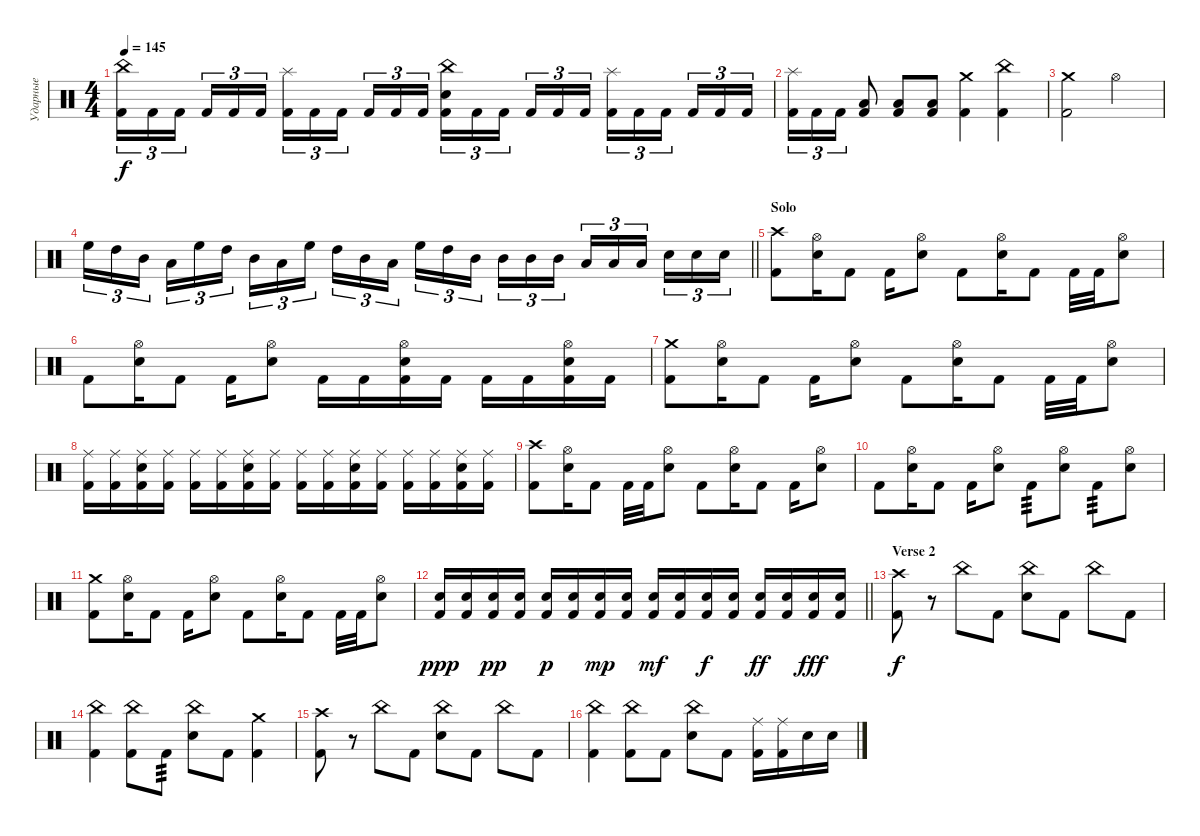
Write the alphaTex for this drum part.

\track ("Ударные" "Ударные") {instrument percussion}
\staff {score}
\articulation defaults
\ts (4 4)
\tempo 145
\clef neutral
\ks c
("China (hit)" "Kick (hit) 2").16{tu (3 2) dy f} "Kick (hit) 2".16{tu (3 2)} "Kick (hit) 2".16{tu (3 2) beam splitsecondary} "Kick (hit) 2".16{tu (3 2)} "Kick (hit) 2".16{tu (3 2)} "Kick (hit) 2".16{tu (3 2)} ("Splash (hit)" "Kick (hit) 2").16{tu (3 2)} "Kick (hit) 2".16{tu (3 2)} "Kick (hit) 2".16{tu (3 2) beam splitsecondary} "Kick (hit) 2".16{tu (3 2)} "Kick (hit) 2".16{tu (3 2)} "Kick (hit) 2".16{tu (3 2)} ("China (hit)" "Electric Snare (hit)" "Kick (hit) 2").16{tu (3 2)} "Kick (hit) 2".16{tu (3 2)} "Kick (hit) 2".16{tu (3 2) beam splitsecondary} "Kick (hit) 2".16{tu (3 2)} "Kick (hit) 2".16{tu (3 2)} "Kick (hit) 2".16{tu (3 2)} ("Splash (hit)" "Kick (hit) 2").16{tu (3 2)} "Kick (hit) 2".16{tu (3 2)} "Kick (hit) 2".16{tu (3 2) beam splitsecondary} "Kick (hit) 2".16{tu (3 2)} "Kick (hit) 2".16{tu (3 2)} "Kick (hit) 2".16{tu (3 2)} |
("Splash (hit)" "Kick (hit) 2").16{tu (3 2)} "Kick (hit) 2".16{tu (3 2)} "Kick (hit) 2".16{tu (3 2)} ("Low Tom (hit)" "Kick (hit) 2").8 ("Low Tom (hit)" "Kick (hit) 2").8 ("Low Tom (hit)" "Kick (hit) 2").8 ("Crash medium (hit)" "Kick (hit) 2").4 ("China (hit)" "Kick (hit) 2").4 |
("Crash medium (hit)" "Kick (hit) 2").2 "Hi-Hat (open)".2 |
\barLineRight lightlight "High Floor Tom (hit)".16{tu (3 2)} "High Tom (hit)".16{tu (3 2)} "Mid Tom (hit)".16{tu (3 2) beam splitsecondary} "Low Tom (hit)".16{tu (3 2)} "High Floor Tom (hit)".16{tu (3 2)} "High Tom (hit)".16{tu (3 2)} "Mid Tom (hit)".16{tu (3 2)} "Low Tom (hit)".16{tu (3 2)} "High Floor Tom (hit)".16{tu (3 2) beam splitsecondary} "High Tom (hit)".16{tu (3 2)} "Mid Tom (hit)".16{tu (3 2)} "Low Tom (hit)".16{tu (3 2)} "High Floor Tom (hit)".16{tu (3 2)} "High Tom (hit)".16{tu (3 2)} "Mid Tom (hit)".16{tu (3 2) beam splitsecondary} "Mid Tom (hit)".16{tu (3 2)} "Mid Tom (hit)".16{tu (3 2)} "Mid Tom (hit)".16{tu (3 2)} "Low Tom (hit)".16{tu (3 2)} "Low Tom (hit)".16{tu (3 2)} "Low Tom (hit)".16{tu (3 2) beam splitsecondary} "Electric Snare (hit)".16{tu (3 2)} "Electric Snare (hit)".16{tu (3 2)} "Electric Snare (hit)".16{tu (3 2)}
|
\section ("" "Solo")
("Crash high (hit)" "Kick (hit) 2").8 ("Hi-Hat (open)" "Electric Snare (hit)").16 "Kick (hit) 2".8 "Kick (hit) 2".16 ("Hi-Hat (open)" "Electric Snare (hit)").8 "Kick (hit) 2".8 ("Hi-Hat (open)" "Electric Snare (hit)").16 "Kick (hit) 2".8 "Kick (hit) 2".32 "Kick (hit) 2".32 ("Hi-Hat (open)" "Electric Snare (hit)").8 |
"Kick (hit) 2".8 ("Hi-Hat (open)" "Electric Snare (hit)").16 "Kick (hit) 2".8 "Kick (hit) 2".16 ("Hi-Hat (open)" "Electric Snare (hit)").8 "Kick (hit) 2".16 "Kick (hit) 2".16 ("Hi-Hat (open)" "Electric Snare (hit)" "Kick (hit) 2").16 "Kick (hit) 2".16 "Kick (hit) 2".16 "Kick (hit) 2".16 ("Hi-Hat (open)" "Electric Snare (hit)" "Kick (hit) 2").16 "Kick (hit) 2".16 |
("Crash medium (hit)" "Kick (hit) 2").8 ("Hi-Hat (open)" "Electric Snare (hit)").16 "Kick (hit) 2".8 "Kick (hit) 2".16 ("Hi-Hat (open)" "Electric Snare (hit)").8 "Kick (hit) 2".8 ("Hi-Hat (open)" "Electric Snare (hit)").16 "Kick (hit) 2".8 "Kick (hit) 2".32 "Kick (hit) 2".32 ("Hi-Hat (open)" "Electric Snare (hit)").8 |
("Ride (middle)" "Kick (hit) 2").16 ("Ride (middle)" "Kick (hit) 2").16 ("Ride (middle)" "Electric Snare (hit)" "Kick (hit) 2").16 ("Ride (middle)" "Kick (hit) 2").16 ("Ride (middle)" "Kick (hit) 2").16 ("Ride (middle)" "Kick (hit) 2").16 ("Ride (middle)" "Electric Snare (hit)" "Kick (hit) 2").16 ("Ride (middle)" "Kick (hit) 2").16 ("Ride (middle)" "Kick (hit) 2").16 ("Ride (middle)" "Kick (hit) 2").16 ("Ride (middle)" "Electric Snare (hit)" "Kick (hit) 2").16 ("Ride (middle)" "Kick (hit) 2").16 ("Ride (middle)" "Kick (hit) 2").16 ("Ride (middle)" "Kick (hit) 2").16 ("Ride (middle)" "Electric Snare (hit)" "Kick (hit) 2").16 ("Ride (middle)" "Kick (hit) 2").16 |
("Crash high (hit)" "Kick (hit) 2").8 ("Hi-Hat (open)" "Electric Snare (hit)").16 "Kick (hit) 2".8 "Kick (hit) 2".32 "Kick (hit) 2".32 ("Hi-Hat (open)" "Electric Snare (hit)").8 "Kick (hit) 2".8 ("Hi-Hat (open)" "Electric Snare (hit)").16 "Kick (hit) 2".8 "Kick (hit) 2".16 ("Hi-Hat (open)" "Electric Snare (hit)").8 |
"Kick (hit) 2".8 ("Hi-Hat (open)" "Electric Snare (hit)").16 "Kick (hit) 2".8 "Kick (hit) 2".16 ("Hi-Hat (open)" "Electric Snare (hit)").8 "Kick (hit) 2".8{tp 3} ("Hi-Hat (open)" "Electric Snare (hit)").8 "Kick (hit) 2".8{tp 3} ("Hi-Hat (open)" "Electric Snare (hit)").8 |
("Crash medium (hit)" "Kick (hit) 2").8 ("Hi-Hat (open)" "Electric Snare (hit)").16 "Kick (hit) 2".8 "Kick (hit) 2".16 ("Hi-Hat (open)" "Electric Snare (hit)").8 "Kick (hit) 2".8 ("Hi-Hat (open)" "Electric Snare (hit)").16 "Kick (hit) 2".8 "Kick (hit) 2".32 "Kick (hit) 2".32 ("Hi-Hat (open)" "Electric Snare (hit)").8 |
\barLineRight lightlight
("Electric Snare (hit)" "Kick (hit) 2").16{dy ppp} ("Electric Snare (hit)" "Kick (hit) 2").16 ("Electric Snare (hit)" "Kick (hit) 2").16{dy pp} ("Electric Snare (hit)" "Kick (hit) 2").16 ("Electric Snare (hit)" "Kick (hit) 2").16{dy p} ("Electric Snare (hit)" "Kick (hit) 2").16 ("Electric Snare (hit)" "Kick (hit) 2").16{dy mp} ("Electric Snare (hit)" "Kick (hit) 2").16 ("Electric Snare (hit)" "Kick (hit) 2").16{dy mf} ("Electric Snare (hit)" "Kick (hit) 2").16 ("Electric Snare (hit)" "Kick (hit) 2").16{dy f} ("Electric Snare (hit)" "Kick (hit) 2").16 ("Electric Snare (hit)" "Kick (hit) 2").16{dy ff} ("Electric Snare (hit)" "Kick (hit) 2").16 ("Electric Snare (hit)" "Kick (hit) 2").16{dy fff} ("Electric Snare (hit)" "Kick (hit) 2").16 |
\section ("" "Verse 2")
("Crash high (hit)" "Kick (hit) 2").8{dy f} r.8 "China (hit)".8 "Kick (hit) 2".8 ("China (hit)" "Electric Snare (hit)").8 "Kick (hit) 2".8 "China (hit)".8 "Kick (hit) 2".8 |
("China (hit)" "Kick (hit) 2").4 ("China (hit)" "Kick (hit) 2").8 "Kick (hit) 2".8{tp 3} ("China (hit)" "Electric Snare (hit)").8 "Kick (hit) 2".8 ("Crash medium (hit)" "Kick (hit) 2").4 |
("Crash high (hit)" "Kick (hit) 2").8 r.8 "China (hit)".8 "Kick (hit) 2".8 ("China (hit)" "Electric Snare (hit)").8 "Kick (hit) 2".8 "China (hit)".8 "Kick (hit) 2".8 |
("China (hit)" "Kick (hit) 2").4 ("China (hit)" "Kick (hit) 2").8 "Kick (hit) 2".8 ("China (hit)" "Electric Snare (hit)").8 "Kick (hit) 2".8 ("Ride (middle)" "Kick (hit) 2").16 ("Ride (middle)" "Kick (hit) 2").16 "Electric Snare (hit)".16 "Electric Snare (hit)".16
